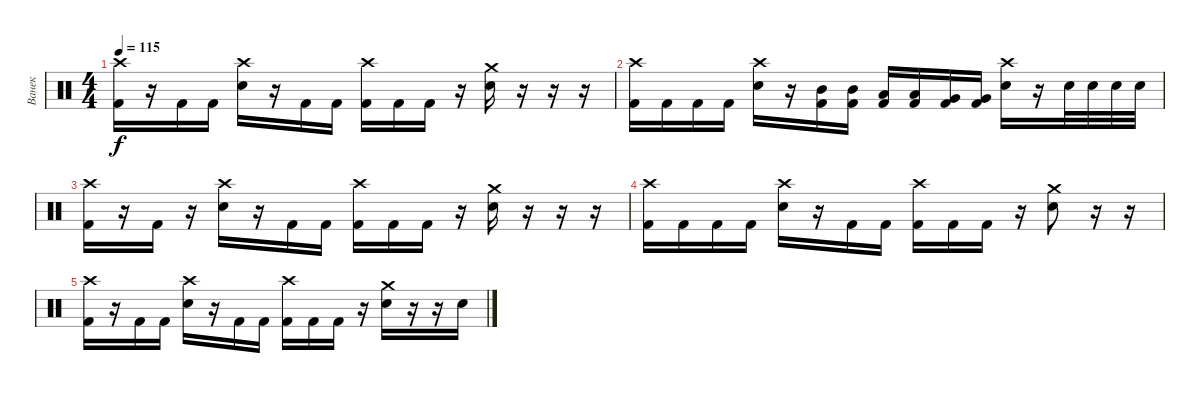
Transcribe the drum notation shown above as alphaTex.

\track ("Ванек" "Ванек") {instrument percussion}
\staff {score}
\articulation defaults
\ts (4 4)
\tempo 115
\clef neutral
\ks c
("Crash high (hit)" "Kick (hit) 2").16{dy f} r.16 "Kick (hit) 2".16 "Kick (hit) 2".16 ("Crash high (hit)" "Snare (hit) 2").16 r.16 "Kick (hit) 2".16 "Kick (hit) 2".16 ("Crash high (hit)" "Kick (hit) 2").16 "Kick (hit) 2".16 "Kick (hit) 2".16 r.16 ("Crash medium (hit)" "Snare (hit) 2").16 r.16 r.16 r.16 |
("Crash high (hit)" "Kick (hit) 2").16 "Kick (hit) 2".16 "Kick (hit) 2".16 "Kick (hit) 2".16 ("Crash high (hit)" "Snare (hit) 2").16 r.16 ("Mid Tom (hit)" "Kick (hit) 2").16 ("Mid Tom (hit)" "Kick (hit) 2").16 ("Low Tom (hit)" "Kick (hit) 2").16 ("Low Floor Tom (hit)" "Kick (hit) 2").16 ("Very Low Tom (hit)" "Kick (hit) 2").16 ("Very Low Tom (hit)" "Kick (hit) 2").16 ("Crash high (hit)" "Snare (hit) 2").16 r.16 "Snare (hit) 2".32 "Snare (hit) 2".32 "Snare (hit) 2".32 "Snare (hit) 2".32 |
("Crash high (hit)" "Kick (hit) 2").16 r.16 "Kick (hit) 2".16 r.16 ("Crash high (hit)" "Snare (hit) 2").16 r.16 "Kick (hit) 2".16 "Kick (hit) 2".16 ("Crash high (hit)" "Kick (hit) 2").16 "Kick (hit) 2".16 "Kick (hit) 2".16 r.16 ("Crash medium (hit)" "Snare (hit) 2").16 r.16 r.16 r.16 |
("Crash high (hit)" "Kick (hit) 2").16 "Kick (hit) 2".16 "Kick (hit) 2".16 "Kick (hit) 2".16 ("Crash high (hit)" "Snare (hit) 2").16 r.16 "Kick (hit) 2".16 "Kick (hit) 2".16 ("Crash high (hit)" "Kick (hit) 2").16 "Kick (hit) 2".16 "Kick (hit) 2".16 r.16 ("Crash medium (hit)" "Snare (hit) 2").8 r.16 r.16 |
("Crash high (hit)" "Kick (hit) 2").16 r.16 "Kick (hit) 2".16 "Kick (hit) 2".16 ("Crash high (hit)" "Snare (hit) 2").16 r.16 "Kick (hit) 2".16 "Kick (hit) 2".16 ("Crash high (hit)" "Kick (hit) 2").16 "Kick (hit) 2".16 "Kick (hit) 2".16 r.16 ("Crash medium (hit)" "Snare (hit) 2").16 r.16 r.16 "Snare (hit) 2".16
